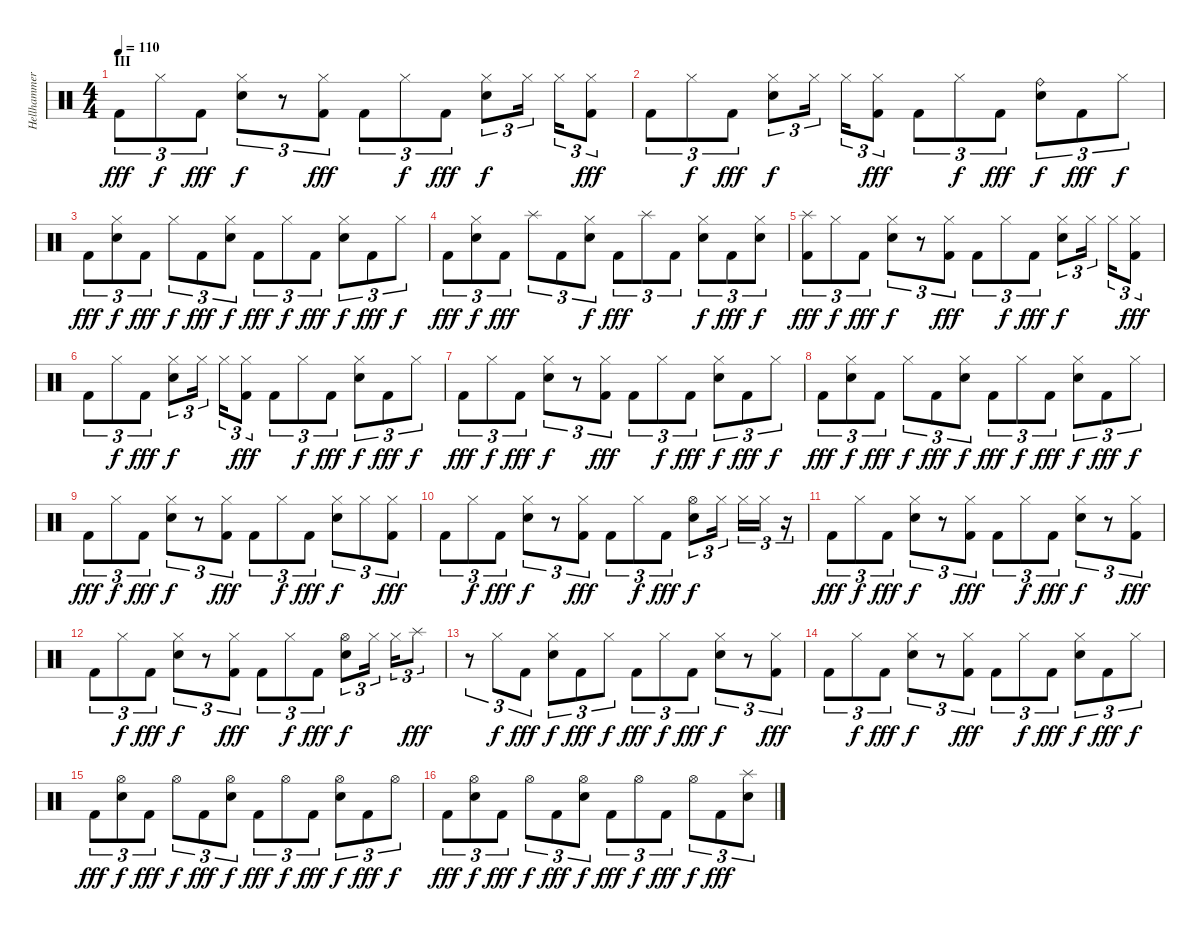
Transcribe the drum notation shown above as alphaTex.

\track ("Hellhammer" "Hellhammer") {instrument percussion}
\staff {score}
\articulation defaults
\ts (4 4)
\section ("" "III")
\tempo 110
\clef neutral
\ks c "Kick (hit) 2".8{tu (3 2) dy fff} "Hi-Hat (closed)".8{tu (3 2) dy f} "Kick (hit) 2".8{tu (3 2) dy fff}
("Electric Snare (hit)" "Hi-Hat (closed)").8{tu (3 2) dy f} r.8{tu (3 2)} ("Kick (hit) 2" "Hi-Hat (closed)").8{tu (3 2) dy fff} "Kick (hit) 2".8{tu (3 2)} "Hi-Hat (closed)".8{tu (3 2) dy f} "Kick (hit) 2".8{tu (3 2) dy fff} ("Electric Snare (hit)" "Hi-Hat (closed)").8{tu (3 2) dy f} "Hi-Hat (closed)".16{tu (3 2)} "Hi-Hat (closed)".16{tu (3 2)} ("Kick (hit) 2" "Hi-Hat (closed)").8{tu (3 2) dy fff} |
"Kick (hit) 2".8{tu (3 2)} "Hi-Hat (closed)".8{tu (3 2) dy f} "Kick (hit) 2".8{tu (3 2) dy fff} ("Electric Snare (hit)" "Hi-Hat (closed)").8{tu (3 2) dy f} "Hi-Hat (closed)".16{tu (3 2)} "Hi-Hat (closed)".16{tu (3 2)} ("Kick (hit) 2" "Hi-Hat (closed)").8{tu (3 2) dy fff} "Kick (hit) 2".8{tu (3 2)} "Hi-Hat (closed)".8{tu (3 2) dy f} "Kick (hit) 2".8{tu (3 2) dy fff} ("Electric Snare (hit)" "Ride (bell)").8{tu (3 2) dy f} "Kick (hit) 2".8{tu (3 2) dy fff} "Hi-Hat (closed)".8{tu (3 2) dy f} |
"Kick (hit) 2".8{tu (3 2) dy fff} ("Electric Snare (hit)" "Hi-Hat (closed)").8{tu (3 2) dy f} "Kick (hit) 2".8{tu (3 2) dy fff} "Hi-Hat (closed)".8{tu (3 2) dy f} "Kick (hit) 2".8{tu (3 2) dy fff} ("Electric Snare (hit)" "Hi-Hat (closed)").8{tu (3 2) dy f} "Kick (hit) 2".8{tu (3 2) dy fff} "Hi-Hat (closed)".8{tu (3 2) dy f} "Kick (hit) 2".8{tu (3 2) dy fff} ("Electric Snare (hit)" "Hi-Hat (closed)").8{tu (3 2) dy f} "Kick (hit) 2".8{tu (3 2) dy fff} "Hi-Hat (closed)".8{tu (3 2) dy f} |
"Kick (hit) 2".8{tu (3 2) dy fff} ("Electric Snare (hit)" "Hi-Hat (closed)").8{tu (3 2) dy f} "Kick (hit) 2".8{tu (3 2) dy fff} "Splash (hit)".8{tu (3 2)} "Kick (hit) 2".8{tu (3 2)} ("Electric Snare (hit)" "Hi-Hat (closed)").8{tu (3 2) dy f} "Kick (hit) 2".8{tu (3 2) dy fff} "Splash (hit)".8{tu (3 2)} "Kick (hit) 2".8{tu (3 2)} ("Electric Snare (hit)" "Hi-Hat (closed)").8{tu (3 2) dy f} "Kick (hit) 2".8{tu (3 2) dy fff} ("Electric Snare (hit)" "Hi-Hat (closed)").8{tu (3 2) dy f} |
("Kick (hit) 2" "Splash (hit)").8{tu (3 2) dy fff} "Hi-Hat (closed)".8{tu (3 2) dy f} "Kick (hit) 2".8{tu (3 2) dy fff} ("Electric Snare (hit)" "Hi-Hat (closed)").8{tu (3 2) dy f} r.8{tu (3 2)} ("Kick (hit) 2" "Hi-Hat (closed)").8{tu (3 2) dy fff} "Kick (hit) 2".8{tu (3 2)} "Hi-Hat (closed)".8{tu (3 2) dy f} "Kick (hit) 2".8{tu (3 2) dy fff} ("Electric Snare (hit)" "Hi-Hat (closed)").8{tu (3 2) dy f} "Hi-Hat (closed)".16{tu (3 2)} "Hi-Hat (closed)".16{tu (3 2)} ("Kick (hit) 2" "Hi-Hat (closed)").8{tu (3 2) dy fff} |
"Kick (hit) 2".8{tu (3 2)} "Hi-Hat (closed)".8{tu (3 2) dy f} "Kick (hit) 2".8{tu (3 2) dy fff} ("Electric Snare (hit)" "Hi-Hat (closed)").8{tu (3 2) dy f} "Hi-Hat (closed)".16{tu (3 2)} "Hi-Hat (closed)".16{tu (3 2)} ("Kick (hit) 2" "Hi-Hat (closed)").8{tu (3 2) dy fff} "Kick (hit) 2".8{tu (3 2)} "Hi-Hat (closed)".8{tu (3 2) dy f} "Kick (hit) 2".8{tu (3 2) dy fff} ("Electric Snare (hit)" "Hi-Hat (closed)").8{tu (3 2) dy f} "Kick (hit) 2".8{tu (3 2) dy fff} "Hi-Hat (closed)".8{tu (3 2) dy f} |
"Kick (hit) 2".8{tu (3 2) dy fff} "Hi-Hat (closed)".8{tu (3 2) dy f} "Kick (hit) 2".8{tu (3 2) dy fff} ("Electric Snare (hit)" "Hi-Hat (closed)").8{tu (3 2) dy f} r.8{tu (3 2)} ("Kick (hit) 2" "Hi-Hat (closed)").8{tu (3 2) dy fff} "Kick (hit) 2".8{tu (3 2)} "Hi-Hat (closed)".8{tu (3 2) dy f} "Kick (hit) 2".8{tu (3 2) dy fff} ("Electric Snare (hit)" "Hi-Hat (closed)").8{tu (3 2) dy f} "Kick (hit) 2".8{tu (3 2) dy fff} "Hi-Hat (closed)".8{tu (3 2) dy f} |
"Kick (hit) 2".8{tu (3 2) dy fff} ("Electric Snare (hit)" "Hi-Hat (closed)").8{tu (3 2) dy f} "Kick (hit) 2".8{tu (3 2) dy fff} "Hi-Hat (closed)".8{tu (3 2) dy f} "Kick (hit) 2".8{tu (3 2) dy fff} ("Electric Snare (hit)" "Hi-Hat (closed)").8{tu (3 2) dy f} "Kick (hit) 2".8{tu (3 2) dy fff} "Hi-Hat (closed)".8{tu (3 2) dy f} "Kick (hit) 2".8{tu (3 2) dy fff} ("Electric Snare (hit)" "Hi-Hat (closed)").8{tu (3 2) dy f} "Kick (hit) 2".8{tu (3 2) dy fff} "Hi-Hat (closed)".8{tu (3 2) dy f} |
"Kick (hit) 2".8{tu (3 2) dy fff} "Hi-Hat (closed)".8{tu (3 2) dy f} "Kick (hit) 2".8{tu (3 2) dy fff} ("Electric Snare (hit)" "Hi-Hat (closed)").8{tu (3 2) dy f} r.8{tu (3 2)} ("Kick (hit) 2" "Hi-Hat (closed)").8{tu (3 2) dy fff} "Kick (hit) 2".8{tu (3 2)} "Hi-Hat (closed)".8{tu (3 2) dy f} "Kick (hit) 2".8{tu (3 2) dy fff} ("Electric Snare (hit)" "Hi-Hat (closed)").8{tu (3 2) dy f} "Hi-Hat (closed)".8{tu (3 2)} ("Kick (hit) 2" "Hi-Hat (closed)").8{tu (3 2) dy fff} |
"Kick (hit) 2".8{tu (3 2)} "Hi-Hat (closed)".8{tu (3 2) dy f} "Kick (hit) 2".8{tu (3 2) dy fff} ("Electric Snare (hit)" "Hi-Hat (closed)").8{tu (3 2) dy f} r.8{tu (3 2)} ("Kick (hit) 2" "Hi-Hat (closed)").8{tu (3 2) dy fff} "Kick (hit) 2".8{tu (3 2)} "Hi-Hat (closed)".8{tu (3 2) dy f} "Kick (hit) 2".8{tu (3 2) dy fff} ("Electric Snare (hit)" "Hi-Hat (open)").8{tu (3 2) dy f} "Hi-Hat (closed)".16{tu (3 2)} "Hi-Hat (closed)".16{tu (3 2)} "Hi-Hat (closed)".16{tu (3 2)} r.16{tu (3 2)} |
"Kick (hit) 2".8{tu (3 2) dy fff} "Hi-Hat (closed)".8{tu (3 2) dy f} "Kick (hit) 2".8{tu (3 2) dy fff} ("Electric Snare (hit)" "Hi-Hat (closed)").8{tu (3 2) dy f} r.8{tu (3 2)} ("Kick (hit) 2" "Hi-Hat (closed)").8{tu (3 2) dy fff} "Kick (hit) 2".8{tu (3 2)} "Hi-Hat (closed)".8{tu (3 2) dy f} "Kick (hit) 2".8{tu (3 2) dy fff} ("Electric Snare (hit)" "Hi-Hat (closed)").8{tu (3 2) dy f} r.8{tu (3 2)} ("Kick (hit) 2" "Hi-Hat (closed)").8{tu (3 2) dy fff} |
"Kick (hit) 2".8{tu (3 2)} "Hi-Hat (closed)".8{tu (3 2) dy f} "Kick (hit) 2".8{tu (3 2) dy fff} ("Electric Snare (hit)" "Hi-Hat (closed)").8{tu (3 2) dy f} r.8{tu (3 2)} ("Kick (hit) 2" "Hi-Hat (closed)").8{tu (3 2) dy fff} "Kick (hit) 2".8{tu (3 2)} "Hi-Hat (closed)".8{tu (3 2) dy f} "Kick (hit) 2".8{tu (3 2) dy fff} ("Electric Snare (hit)" "Hi-Hat (open)").8{tu (3 2) dy f} "Hi-Hat (closed)".16{tu (3 2)} "Hi-Hat (closed)".16{tu (3 2)} "Splash (hit)".8{tu (3 2) dy fff} |
r.8{tu (3 2)} "Hi-Hat (closed)".8{tu (3 2) dy f} "Kick (hit) 2".8{tu (3 2) dy fff} ("Electric Snare (hit)" "Hi-Hat (closed)").8{tu (3 2) dy f} "Kick (hit) 2".8{tu (3 2) dy fff} "Hi-Hat (closed)".8{tu (3 2) dy f} "Kick (hit) 2".8{tu (3 2) dy fff} "Hi-Hat (closed)".8{tu (3 2) dy f} "Kick (hit) 2".8{tu (3 2) dy fff} ("Electric Snare (hit)" "Hi-Hat (closed)").8{tu (3 2) dy f} r.8{tu (3 2)} ("Kick (hit) 2" "Hi-Hat (closed)").8{tu (3 2) dy fff} |
"Kick (hit) 2".8{tu (3 2)} "Hi-Hat (closed)".8{tu (3 2) dy f} "Kick (hit) 2".8{tu (3 2) dy fff} ("Electric Snare (hit)" "Hi-Hat (closed)").8{tu (3 2) dy f} r.8{tu (3 2)} ("Kick (hit) 2" "Hi-Hat (closed)").8{tu (3 2) dy fff} "Kick (hit) 2".8{tu (3 2)} "Hi-Hat (closed)".8{tu (3 2) dy f} "Kick (hit) 2".8{tu (3 2) dy fff} ("Electric Snare (hit)" "Hi-Hat (closed)").8{tu (3 2) dy f} "Kick (hit) 2".8{tu (3 2) dy fff} "Hi-Hat (closed)".8{tu (3 2) dy f} |
"Kick (hit) 2".8{tu (3 2) dy fff} ("Electric Snare (hit)" "Hi-Hat (open)").8{tu (3 2) dy f} "Kick (hit) 2".8{tu (3 2) dy fff} "Hi-Hat (open)".8{tu (3 2) dy f} "Kick (hit) 2".8{tu (3 2) dy fff} ("Electric Snare (hit)" "Hi-Hat (open)").8{tu (3 2) dy f} "Kick (hit) 2".8{tu (3 2) dy fff} "Hi-Hat (open)".8{tu (3 2) dy f} "Kick (hit) 2".8{tu (3 2) dy fff} ("Electric Snare (hit)" "Hi-Hat (open)").8{tu (3 2) dy f} "Kick (hit) 2".8{tu (3 2) dy fff} "Hi-Hat (open)".8{tu (3 2) dy f} |
"Kick (hit) 2".8{tu (3 2) dy fff} ("Electric Snare (hit)" "Hi-Hat (open)").8{tu (3 2) dy f} "Kick (hit) 2".8{tu (3 2) dy fff} "Hi-Hat (open)".8{tu (3 2) dy f} "Kick (hit) 2".8{tu (3 2) dy fff} ("Electric Snare (hit)" "Hi-Hat (open)").8{tu (3 2) dy f} "Kick (hit) 2".8{tu (3 2) dy fff} "Hi-Hat (open)".8{tu (3 2) dy f} "Kick (hit) 2".8{tu (3 2) dy fff} "Hi-Hat (open)".8{tu (3 2) dy f} "Kick (hit) 2".8{tu (3 2) dy fff} ("Electric Snare (hit)" "Splash (hit)").8{tu (3 2)}
